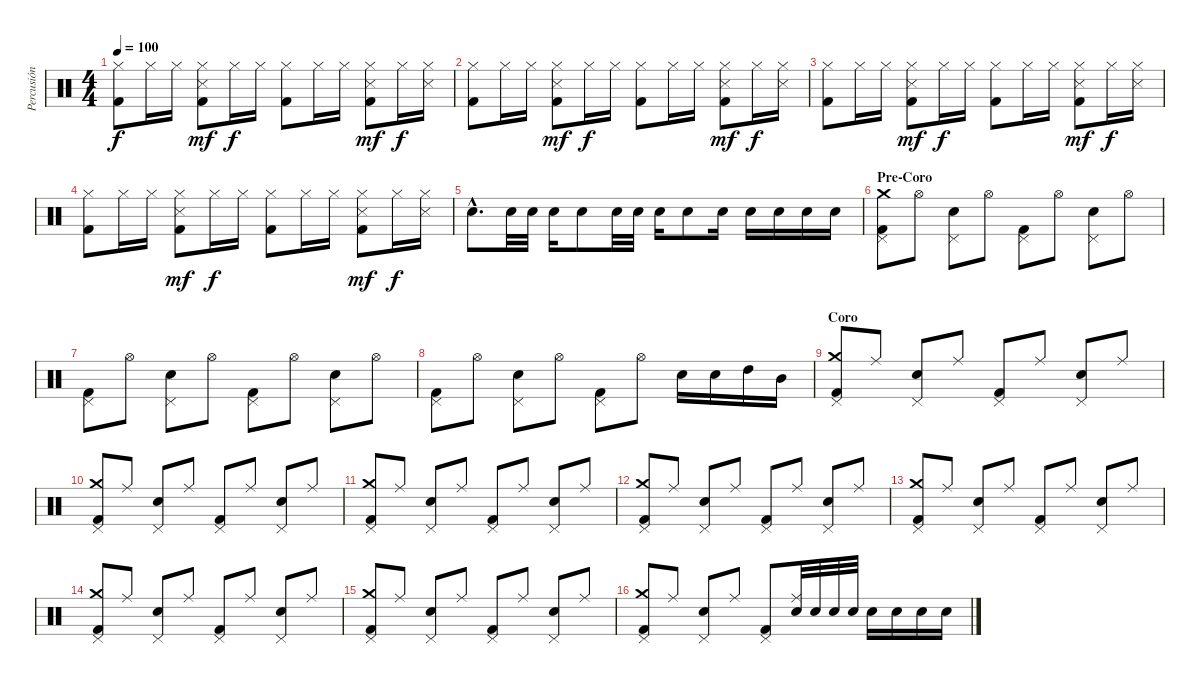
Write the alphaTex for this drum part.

\track ("Percusión" "Percusión") {instrument percussion}
\staff {score}
\articulation defaults
\ts (4 4)
\tempo 100
\clef neutral
\ks c
("Kick (hit) 2" "Hi-Hat (closed)").8{dy f} "Hi-Hat (closed)".16 "Hi-Hat (closed)".16 ("Hi-Hat (closed)" "Kick (hit) 2" "Metronome (hit)").8{dy mf} "Hi-Hat (closed)".16{dy f} "Hi-Hat (closed)".16 ("Kick (hit) 2" "Hi-Hat (closed)").8 "Hi-Hat (closed)".16 "Hi-Hat (closed)".16 ("Hi-Hat (closed)" "Kick (hit) 2" "Metronome (hit)").8{dy mf} "Hi-Hat (closed)".16{dy f} ("Hi-Hat (closed)" "Metronome (hit)").16 |
("Kick (hit) 2" "Hi-Hat (closed)").8 "Hi-Hat (closed)".16 "Hi-Hat (closed)".16 ("Hi-Hat (closed)" "Kick (hit) 2" "Metronome (hit)").8{dy mf} "Hi-Hat (closed)".16{dy f} "Hi-Hat (closed)".16 ("Kick (hit) 2" "Hi-Hat (closed)").8 "Hi-Hat (closed)".16 "Hi-Hat (closed)".16 ("Hi-Hat (closed)" "Kick (hit) 2" "Metronome (hit)").8{dy mf} "Hi-Hat (closed)".16{dy f} ("Hi-Hat (closed)" "Metronome (hit)").16 |
("Kick (hit) 2" "Hi-Hat (closed)").8 "Hi-Hat (closed)".16 "Hi-Hat (closed)".16 ("Hi-Hat (closed)" "Kick (hit) 2" "Metronome (hit)").8{dy mf} "Hi-Hat (closed)".16{dy f} "Hi-Hat (closed)".16 ("Kick (hit) 2" "Hi-Hat (closed)").8 "Hi-Hat (closed)".16 "Hi-Hat (closed)".16 ("Hi-Hat (closed)" "Kick (hit) 2" "Metronome (hit)").8{dy mf} "Hi-Hat (closed)".16{dy f} ("Hi-Hat (closed)" "Metronome (hit)").16 |
("Kick (hit) 2" "Hi-Hat (closed)").8 "Hi-Hat (closed)".16 "Hi-Hat (closed)".16 ("Hi-Hat (closed)" "Kick (hit) 2" "Metronome (hit)").8{dy mf} "Hi-Hat (closed)".16{dy f} "Hi-Hat (closed)".16 ("Kick (hit) 2" "Hi-Hat (closed)").8 "Hi-Hat (closed)".16 "Hi-Hat (closed)".16 ("Hi-Hat (closed)" "Kick (hit) 2" "Metronome (hit)").8{dy mf} "Hi-Hat (closed)".16{dy f} ("Hi-Hat (closed)" "Metronome (hit)").16 |
"Electric Snare (hit)"{hac}.8{d} "Electric Snare (hit)".32 "Electric Snare (hit)".32 "Electric Snare (hit)".16 "Electric Snare (hit)".8 "Electric Snare (hit)".32 "Electric Snare (hit)".32 "Electric Snare (hit)".16 "Electric Snare (hit)".8 "Electric Snare (hit)".16 "Electric Snare (hit)".16 "Electric Snare (hit)".16 "Electric Snare (hit)".16 "Electric Snare (hit)".16 |
\section ("" "Pre-Coro")
("Crash medium (hit)" "Pedal Hi-Hat (hit)" "Kick (hit) 2").8 "Hi-Hat (open)".8 ("Electric Snare (hit)" "Pedal Hi-Hat (hit)").8 "Hi-Hat (open)".8 ("Pedal Hi-Hat (hit)" "Kick (hit) 2").8 "Hi-Hat (open)".8 ("Electric Snare (hit)" "Pedal Hi-Hat (hit)").8 "Hi-Hat (open)".8 |
("Pedal Hi-Hat (hit)" "Kick (hit) 2").8 "Hi-Hat (open)".8 ("Electric Snare (hit)" "Pedal Hi-Hat (hit)").8 "Hi-Hat (open)".8 ("Pedal Hi-Hat (hit)" "Kick (hit) 2").8 "Hi-Hat (open)".8 ("Electric Snare (hit)" "Pedal Hi-Hat (hit)").8 "Hi-Hat (open)".8 |
("Pedal Hi-Hat (hit)" "Kick (hit) 2").8 "Hi-Hat (open)".8 ("Electric Snare (hit)" "Pedal Hi-Hat (hit)").8 "Hi-Hat (open)".8 ("Pedal Hi-Hat (hit)" "Kick (hit) 2").8 "Hi-Hat (open)".8 "Electric Snare (hit)".16 "Electric Snare (hit)".16 "High Tom (hit)".16 "Mid Tom (hit)".16 |
\section ("" "Coro")
("Crash medium (hit)" "Kick (hit) 2" "Pedal Hi-Hat (hit)").8 "Ride (middle)".8 ("Pedal Hi-Hat (hit)" "Electric Snare (hit)").8 "Ride (middle)".8 ("Pedal Hi-Hat (hit)" "Kick (hit) 2").8 "Ride (middle)".8 ("Pedal Hi-Hat (hit)" "Electric Snare (hit)").8 "Ride (middle)".8 |
("Crash medium (hit)" "Kick (hit) 2" "Pedal Hi-Hat (hit)").8 "Ride (middle)".8 ("Pedal Hi-Hat (hit)" "Electric Snare (hit)").8 "Ride (middle)".8 ("Pedal Hi-Hat (hit)" "Kick (hit) 2").8 "Ride (middle)".8 ("Pedal Hi-Hat (hit)" "Electric Snare (hit)").8 "Ride (middle)".8 |
("Crash medium (hit)" "Kick (hit) 2" "Pedal Hi-Hat (hit)").8 "Ride (middle)".8 ("Pedal Hi-Hat (hit)" "Electric Snare (hit)").8 "Ride (middle)".8 ("Pedal Hi-Hat (hit)" "Kick (hit) 2").8 "Ride (middle)".8 ("Pedal Hi-Hat (hit)" "Electric Snare (hit)").8 "Ride (middle)".8 |
("Crash medium (hit)" "Kick (hit) 2" "Pedal Hi-Hat (hit)").8 "Ride (middle)".8 ("Pedal Hi-Hat (hit)" "Electric Snare (hit)").8 "Ride (middle)".8 ("Pedal Hi-Hat (hit)" "Kick (hit) 2").8 "Ride (middle)".8 ("Pedal Hi-Hat (hit)" "Electric Snare (hit)").8 "Ride (middle)".8 |
("Crash medium (hit)" "Kick (hit) 2" "Pedal Hi-Hat (hit)").8 "Ride (middle)".8 ("Pedal Hi-Hat (hit)" "Electric Snare (hit)").8 "Ride (middle)".8 ("Pedal Hi-Hat (hit)" "Kick (hit) 2").8 "Ride (middle)".8 ("Pedal Hi-Hat (hit)" "Electric Snare (hit)").8 "Ride (middle)".8 |
("Crash medium (hit)" "Kick (hit) 2" "Pedal Hi-Hat (hit)").8 "Ride (middle)".8 ("Pedal Hi-Hat (hit)" "Electric Snare (hit)").8 "Ride (middle)".8 ("Pedal Hi-Hat (hit)" "Kick (hit) 2").8 "Ride (middle)".8 ("Pedal Hi-Hat (hit)" "Electric Snare (hit)").8 "Ride (middle)".8 |
("Crash medium (hit)" "Kick (hit) 2" "Pedal Hi-Hat (hit)").8 "Ride (middle)".8 ("Pedal Hi-Hat (hit)" "Electric Snare (hit)").8 "Ride (middle)".8 ("Pedal Hi-Hat (hit)" "Kick (hit) 2").8 "Ride (middle)".8 ("Pedal Hi-Hat (hit)" "Electric Snare (hit)").8 "Ride (middle)".8 |
("Crash medium (hit)" "Kick (hit) 2" "Pedal Hi-Hat (hit)").8 "Ride (middle)".8 ("Pedal Hi-Hat (hit)" "Electric Snare (hit)").8 "Ride (middle)".8 ("Pedal Hi-Hat (hit)" "Kick (hit) 2").8 ("Ride (middle)" "Electric Snare (hit)").32 "Electric Snare (hit)".32 "Electric Snare (hit)".32 "Electric Snare (hit)".32 "Electric Snare (hit)".16 "Electric Snare (hit)".16 "Electric Snare (hit)".16 "Electric Snare (hit)".16
